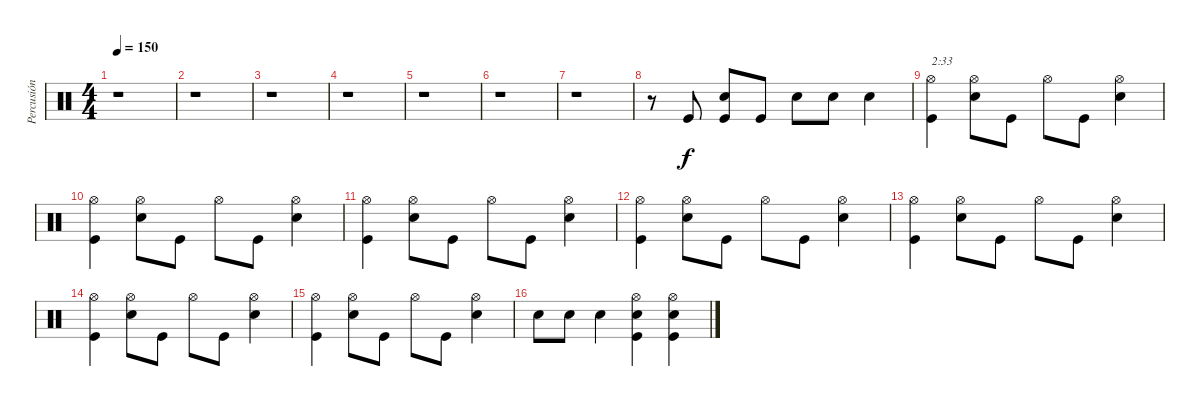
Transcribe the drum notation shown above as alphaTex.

\track ("Percusión" "Percusión") {instrument percussion}
\staff {score}
\articulation defaults
\ts (4 4)
\tempo 150
\clef neutral
\ks c
r.1{dy f} |
r.1 |
r.1 |
r.1 |
r.1 |
r.1 |
r.1 |
r.8 "Kick (hit)".8 ("Kick (hit)" "Snare (hit) 2").8 "Kick (hit)".8 "Snare (hit) 2".8 "Snare (hit) 2".8 "Snare (hit) 2".4 |
("Kick (hit)" "Hi-Hat (open)").4{txt "2:33"} ("Snare (hit) 2" "Hi-Hat (open)").8 "Kick (hit)".8 "Hi-Hat (open)".8 "Kick (hit)".8 ("Snare (hit) 2" "Hi-Hat (open)").4 |
("Kick (hit)" "Hi-Hat (open)").4 ("Snare (hit) 2" "Hi-Hat (open)").8 "Kick (hit)".8 "Hi-Hat (open)".8 "Kick (hit)".8 ("Snare (hit) 2" "Hi-Hat (open)").4 |
("Kick (hit)" "Hi-Hat (open)").4 ("Snare (hit) 2" "Hi-Hat (open)").8 "Kick (hit)".8 "Hi-Hat (open)".8 "Kick (hit)".8 ("Snare (hit) 2" "Hi-Hat (open)").4 |
("Kick (hit)" "Hi-Hat (open)").4 ("Snare (hit) 2" "Hi-Hat (open)").8 "Kick (hit)".8 "Hi-Hat (open)".8 "Kick (hit)".8 ("Snare (hit) 2" "Hi-Hat (open)").4 |
("Kick (hit)" "Hi-Hat (open)").4 ("Snare (hit) 2" "Hi-Hat (open)").8 "Kick (hit)".8 "Hi-Hat (open)".8 "Kick (hit)".8 ("Snare (hit) 2" "Hi-Hat (open)").4 |
("Kick (hit)" "Hi-Hat (open)").4 ("Snare (hit) 2" "Hi-Hat (open)").8 "Kick (hit)".8 "Hi-Hat (open)".8 "Kick (hit)".8 ("Snare (hit) 2" "Hi-Hat (open)").4 |
("Kick (hit)" "Hi-Hat (open)").4 ("Snare (hit) 2" "Hi-Hat (open)").8 "Kick (hit)".8 "Hi-Hat (open)".8 "Kick (hit)".8 ("Snare (hit) 2" "Hi-Hat (open)").4 |
"Snare (hit) 2".8 "Snare (hit) 2".8 "Snare (hit) 2".4 ("Kick (hit)" "Snare (hit) 2" "Hi-Hat (open)").4 ("Kick (hit)" "Snare (hit) 2" "Hi-Hat (open)").4
